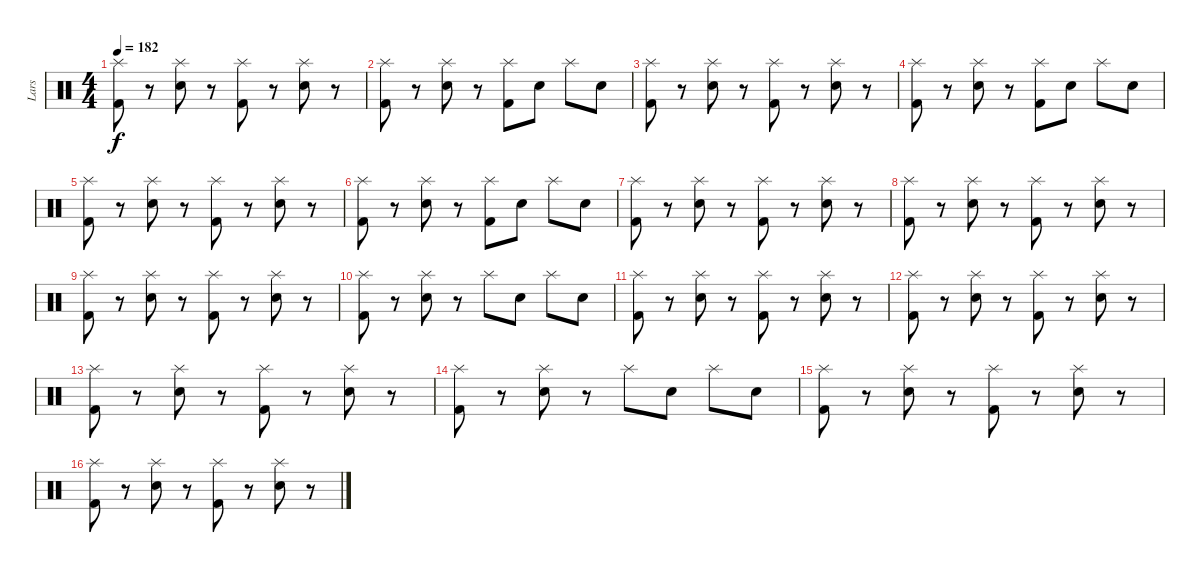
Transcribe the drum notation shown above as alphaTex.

\track ("Lars" "Lars") {instrument percussion}
\staff {score}
\articulation defaults
\ts (4 4)
\tempo 182
\clef neutral
\ks c
("Splash (hit)" "Kick (hit) 2").8{dy f} r.8 ("Splash (hit)" "Snare (hit) 2").8 r.8 ("Splash (hit)" "Kick (hit) 2").8 r.8 ("Splash (hit)" "Snare (hit) 2").8 r.8 |
("Splash (hit)" "Kick (hit) 2").8 r.8 ("Splash (hit)" "Snare (hit) 2").8 r.8 ("Splash (hit)" "Kick (hit) 2").8 "Snare (hit) 2".8 "Splash (hit)".8 "Snare (hit) 2".8 |
("Splash (hit)" "Kick (hit) 2").8 r.8 ("Splash (hit)" "Snare (hit) 2").8 r.8 ("Splash (hit)" "Kick (hit) 2").8 r.8 ("Splash (hit)" "Snare (hit) 2").8 r.8 |
("Splash (hit)" "Kick (hit) 2").8 r.8 ("Splash (hit)" "Snare (hit) 2").8 r.8 ("Splash (hit)" "Kick (hit) 2").8 "Snare (hit) 2".8 "Splash (hit)".8 "Snare (hit) 2".8 |
("Splash (hit)" "Kick (hit) 2").8 r.8 ("Splash (hit)" "Snare (hit) 2").8 r.8 ("Splash (hit)" "Kick (hit) 2").8 r.8 ("Splash (hit)" "Snare (hit) 2").8 r.8 |
("Splash (hit)" "Kick (hit) 2").8 r.8 ("Splash (hit)" "Snare (hit) 2").8 r.8 ("Splash (hit)" "Kick (hit) 2").8 "Snare (hit) 2".8 "Splash (hit)".8 "Snare (hit) 2".8 |
("Splash (hit)" "Kick (hit) 2").8 r.8 ("Splash (hit)" "Snare (hit) 2").8 r.8 ("Splash (hit)" "Kick (hit) 2").8 r.8 ("Splash (hit)" "Snare (hit) 2").8 r.8 |
("Splash (hit)" "Kick (hit) 2").8 r.8 ("Splash (hit)" "Snare (hit) 2").8 r.8 ("Splash (hit)" "Kick (hit) 2").8 r.8 ("Splash (hit)" "Snare (hit) 2").8 r.8 |
("Splash (hit)" "Kick (hit) 2").8 r.8 ("Splash (hit)" "Snare (hit) 2").8 r.8 ("Splash (hit)" "Kick (hit) 2").8 r.8 ("Splash (hit)" "Snare (hit) 2").8 r.8 |
("Splash (hit)" "Kick (hit) 2").8 r.8 ("Splash (hit)" "Snare (hit) 2").8 r.8 "Splash (hit)".8 "Snare (hit) 2".8 "Splash (hit)".8 "Snare (hit) 2".8 |
("Splash (hit)" "Kick (hit) 2").8 r.8 ("Splash (hit)" "Snare (hit) 2").8 r.8 ("Splash (hit)" "Kick (hit) 2").8 r.8 ("Splash (hit)" "Snare (hit) 2").8 r.8 |
("Splash (hit)" "Kick (hit) 2").8 r.8 ("Splash (hit)" "Snare (hit) 2").8 r.8 ("Splash (hit)" "Kick (hit) 2").8 r.8 ("Splash (hit)" "Snare (hit) 2").8 r.8 |
("Splash (hit)" "Kick (hit) 2").8 r.8 ("Splash (hit)" "Snare (hit) 2").8 r.8 ("Splash (hit)" "Kick (hit) 2").8 r.8 ("Splash (hit)" "Snare (hit) 2").8 r.8 |
("Splash (hit)" "Kick (hit) 2").8 r.8 ("Splash (hit)" "Snare (hit) 2").8 r.8 "Splash (hit)".8 "Snare (hit) 2".8 "Splash (hit)".8 "Snare (hit) 2".8 |
("Splash (hit)" "Kick (hit) 2").8 r.8 ("Splash (hit)" "Snare (hit) 2").8 r.8 ("Splash (hit)" "Kick (hit) 2").8 r.8 ("Splash (hit)" "Snare (hit) 2").8 r.8 |
("Splash (hit)" "Kick (hit) 2").8 r.8 ("Splash (hit)" "Snare (hit) 2").8 r.8 ("Splash (hit)" "Kick (hit) 2").8 r.8 ("Splash (hit)" "Snare (hit) 2").8 r.8
